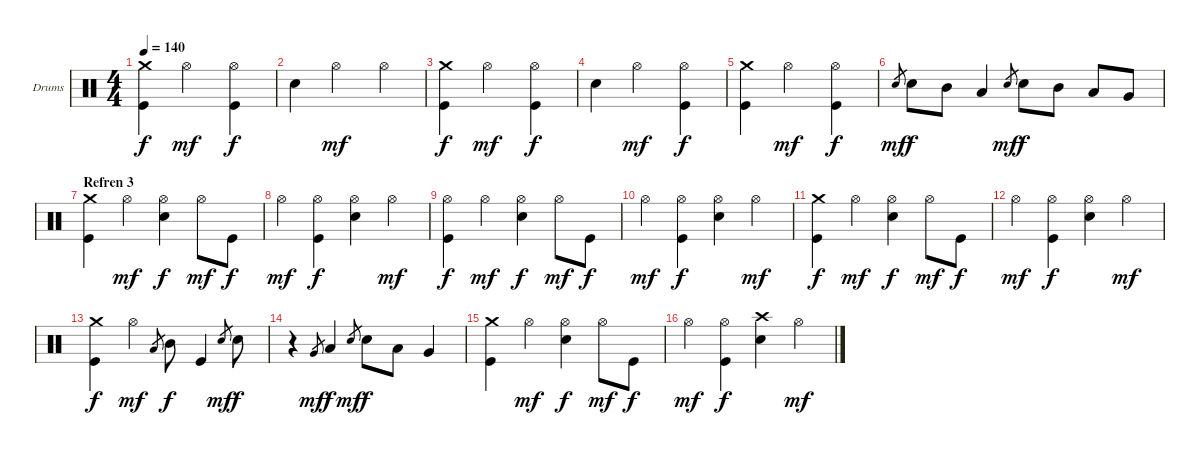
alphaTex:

\bracketExtendMode groupsimilarinstruments
\firstSystemTrackNameOrientation horizontal
\otherSystemsTrackNameOrientation horizontal
\track ("Drumkit" "Drums") {instrument percussion}
\staff {score}
\articulation defaults
\ts (4 4)
\tempo 140
\clef neutral
\ks c
("Kick (hit)" "Crash medium (hit)").4{dy f} "Hi-Hat (open)".2{dy mf} ("Kick (hit)" "Hi-Hat (open)").4{dy f} |
"Snare (hit) 2".4 "Hi-Hat (open)".2{dy mf} "Hi-Hat (open)".4 |
("Kick (hit)" "Crash medium (hit)").4{dy f} "Hi-Hat (open)".2{dy mf} ("Kick (hit)" "Hi-Hat (open)").4{dy f} |
"Snare (hit) 2".4 "Hi-Hat (open)".2{dy mf} ("Kick (hit)" "Hi-Hat (open)").4{dy f} |
("Kick (hit)" "Crash medium (hit)").4 "Hi-Hat (open)".2{dy mf} ("Kick (hit)" "Hi-Hat (open)").4{dy f} |
"Snare (hit) 2".8{gr dy mf} "Snare (hit) 2".8{dy f} "Mid Tom (hit)".8 "Low Tom (hit)".4 "Snare (hit) 2".8{gr dy mf} "Snare (hit) 2".8{dy f} "Mid Tom (hit)".8 "Low Tom (hit)".8 "Very Low Tom (hit)".8 |
\section ("" "Refren 3")
("Kick (hit)" "Crash medium (hit)").4 "Hi-Hat (open)".4{dy mf} ("Snare (hit) 2" "Hi-Hat (open)").4{dy f} "Hi-Hat (open)".8{dy mf} "Kick (hit)".8{dy f} |
"Hi-Hat (open)".4{dy mf} ("Kick (hit)" "Hi-Hat (open)").4{dy f} ("Snare (hit) 2" "Hi-Hat (open)").4 "Hi-Hat (open)".4{dy mf} |
("Kick (hit)" "Hi-Hat (open)").4{dy f} "Hi-Hat (open)".4{dy mf} ("Snare (hit) 2" "Hi-Hat (open)").4{dy f} "Hi-Hat (open)".8{dy mf} "Kick (hit)".8{dy f} |
"Hi-Hat (open)".4{dy mf} ("Kick (hit)" "Hi-Hat (open)").4{dy f} ("Snare (hit) 2" "Hi-Hat (open)").4 "Hi-Hat (open)".4{dy mf} |
("Kick (hit)" "Crash medium (hit)").4{dy f} "Hi-Hat (open)".4{dy mf} ("Snare (hit) 2" "Hi-Hat (open)").4{dy f} "Hi-Hat (open)".8{dy mf} "Kick (hit)".8{dy f} |
"Hi-Hat (open)".4{dy mf} ("Kick (hit)" "Hi-Hat (open)").4{dy f} ("Snare (hit) 2" "Hi-Hat (open)").4 "Hi-Hat (open)".4{dy mf} |
("Kick (hit)" "Crash medium (hit)").4{dy f} "Hi-Hat (open)".4{dy mf} "Low Tom (hit)".8{gr} "Mid Tom (hit)".8{dy f} "Kick (hit)".4 "Snare (hit) 2".8{gr dy mf} "Snare (hit) 2".8{dy f} |
r.4 "Very Low Tom (hit)".8{gr dy mf} "Low Tom (hit)".4{dy f} "Snare (hit) 2".8{gr dy mf} "Snare (hit) 2".8{dy f} "Low Tom (hit)".8 "Very Low Tom (hit)".4 |
("Kick (hit)" "Crash medium (hit)").4 "Hi-Hat (open)".4{dy mf} ("Snare (hit) 2" "Hi-Hat (open)").4{dy f} "Hi-Hat (open)".8{dy mf} "Kick (hit)".8{dy f} |
"Hi-Hat (open)".4{dy mf} ("Kick (hit)" "Hi-Hat (open)").4{dy f} ("Snare (hit) 2" "Crash high (hit)").4 "Hi-Hat (open)".4{dy mf}
